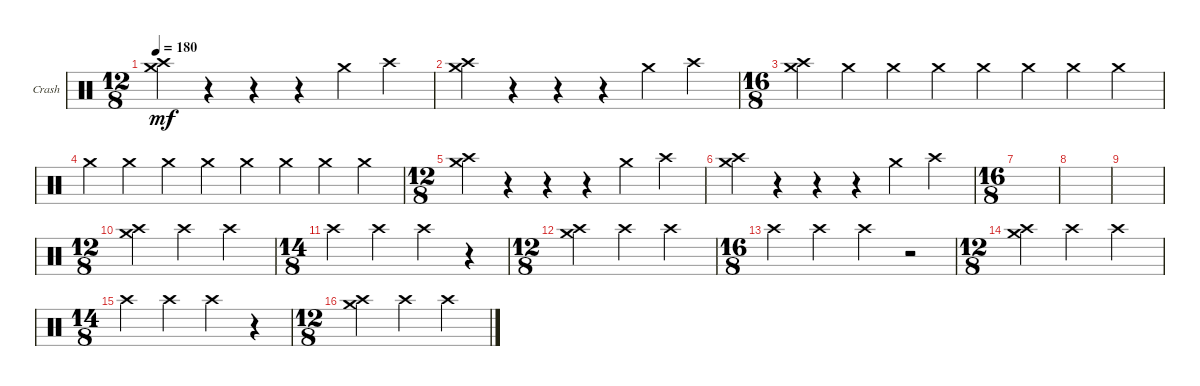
\defaultSystemsLayout 4
\bracketExtendMode groupsimilarinstruments
\firstSystemTrackNameOrientation horizontal
\otherSystemsTrackNameOrientation horizontal
\track ("Crashes" "Crash") {instrument percussion}
\staff {score}
\articulation defaults
\ts (12 8)
\tempo 180
\clef neutral
\ks c
("Crash high (hit)" "Crash medium (hit)").4{dy mf} r.4 r.4 r.4 "Crash medium (hit)".4 "Crash high (hit)".4 |
("Crash medium (hit)" "Crash high (hit)").4 r.4 r.4 r.4 "Crash medium (hit)".4 "Crash high (hit)".4 |
\ts (16 8)
\beaming (8 2 2 2 2 2 2 2 1 1)
("Crash high (hit)" "Crash medium (hit)").4 "Crash medium (hit)".4 "Crash medium (hit)".4 "Crash medium (hit)".4 "Crash medium (hit)".4 "Crash medium (hit)".4 "Crash medium (hit)".4 "Crash medium (hit)".4 |
"Crash medium (hit)".4 "Crash medium (hit)".4 "Crash medium (hit)".4 "Crash medium (hit)".4 "Crash medium (hit)".4 "Crash medium (hit)".4 "Crash medium (hit)".4 "Crash medium (hit)".4 |
\ts (12 8)
("Crash medium (hit)" "Crash high (hit)").4 r.4 r.4 r.4 "Crash medium (hit)".4 "Crash high (hit)".4 |
("Crash medium (hit)" "Crash high (hit)").4 r.4 r.4 r.4 "Crash medium (hit)".4 "Crash high (hit)".4 |
\ts (16 8)
|
|
|
\ts (12 8)
("Crash high (hit)" "Crash medium (hit)").2 "Crash high (hit)".2 "Crash high (hit)".2 |
\ts (14 8)
"Crash high (hit)".2 "Crash high (hit)".2 "Crash high (hit)".2 r.4 |
\ts (12 8)
("Crash high (hit)" "Crash medium (hit)").2 "Crash high (hit)".2 "Crash high (hit)".2 |
\ts (16 8)
"Crash high (hit)".2 "Crash high (hit)".2 "Crash high (hit)".2 r.2 |
\ts (12 8)
("Crash high (hit)" "Crash medium (hit)").2 "Crash high (hit)".2 "Crash high (hit)".2 |
\ts (14 8)
"Crash high (hit)".2 "Crash high (hit)".2 "Crash high (hit)".2 r.4 |
\ts (12 8)
("Crash high (hit)" "Crash medium (hit)").2 "Crash high (hit)".2 "Crash high (hit)".2
